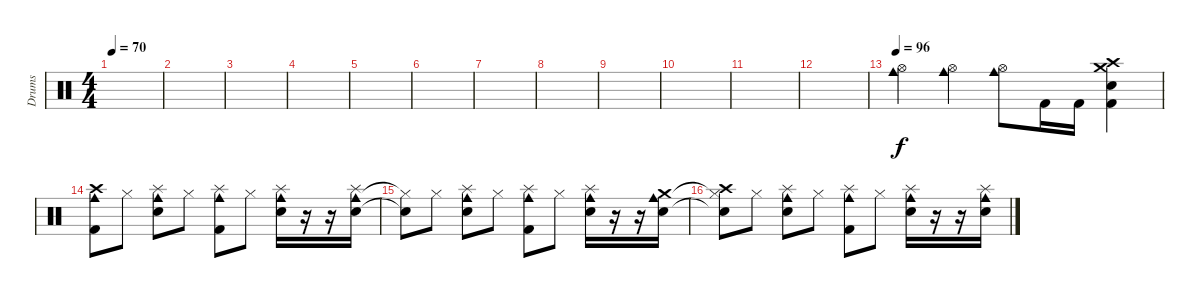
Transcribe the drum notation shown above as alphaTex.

\track ("Drums" "Drums") {instrument percussion}
\staff {score}
\articulation defaults
\ts (4 4)
\tempo 70
\tempo 88
\tempo 70
\clef neutral
\ks c
|
|
|
|
|
|
|
|
|
|
|
|
\tempo 96
("Cowbell medium (hit)" "Hi-Hat (open)").4 ("Cowbell medium (hit)" "Hi-Hat (open)").4 ("Cowbell medium (hit)" "Hi-Hat (open)").8 "Kick (hit) 2".16 "Kick (hit) 2".16 ("Snare (hit) 2" "Crash medium (hit)" "Kick (hit) 2" "Crash high (hit)").4 |
("Kick (hit) 2" "Cowbell medium (hit)" "Crash high (hit)").8 "Hi-Hat (closed)".8 ("Snare (hit) 2" "Cowbell medium (hit)" "Splash (hit)").8 "Hi-Hat (closed)".8 ("Kick (hit) 2" "Cowbell medium (hit)" "Splash (hit)").8 "Hi-Hat (closed)".8 ("Snare (hit) 2" "Cowbell medium (hit)" "Splash (hit)").16 r.16 r.16 ("Snare (hit) 2" "Cowbell medium (hit)" "Splash (hit)").16 |
("Snare (hit) 2"{t} "Hi-Hat (closed)"{t}).8 "Hi-Hat (closed)".8 ("Snare (hit) 2" "Cowbell medium (hit)" "Splash (hit)").8 "Hi-Hat (closed)".8 ("Kick (hit) 2" "Cowbell medium (hit)" "Splash (hit)").8 "Hi-Hat (closed)".8 ("Snare (hit) 2" "Cowbell medium (hit)" "Splash (hit)").16 r.16 r.16 ("Snare (hit) 2" "Cowbell medium (hit)" "Crash medium (hit)").16 |
("Snare (hit) 2"{t} "Hi-Hat (closed)"{t} "Crash high (hit)").8 "Hi-Hat (closed)".8 ("Snare (hit) 2" "Cowbell medium (hit)" "Splash (hit)").8 "Hi-Hat (closed)".8 ("Kick (hit) 2" "Cowbell medium (hit)" "Splash (hit)").8 "Hi-Hat (closed)".8 ("Snare (hit) 2" "Cowbell medium (hit)" "Splash (hit)").16 r.16 r.16 ("Snare (hit) 2" "Cowbell medium (hit)" "Splash (hit)").16
